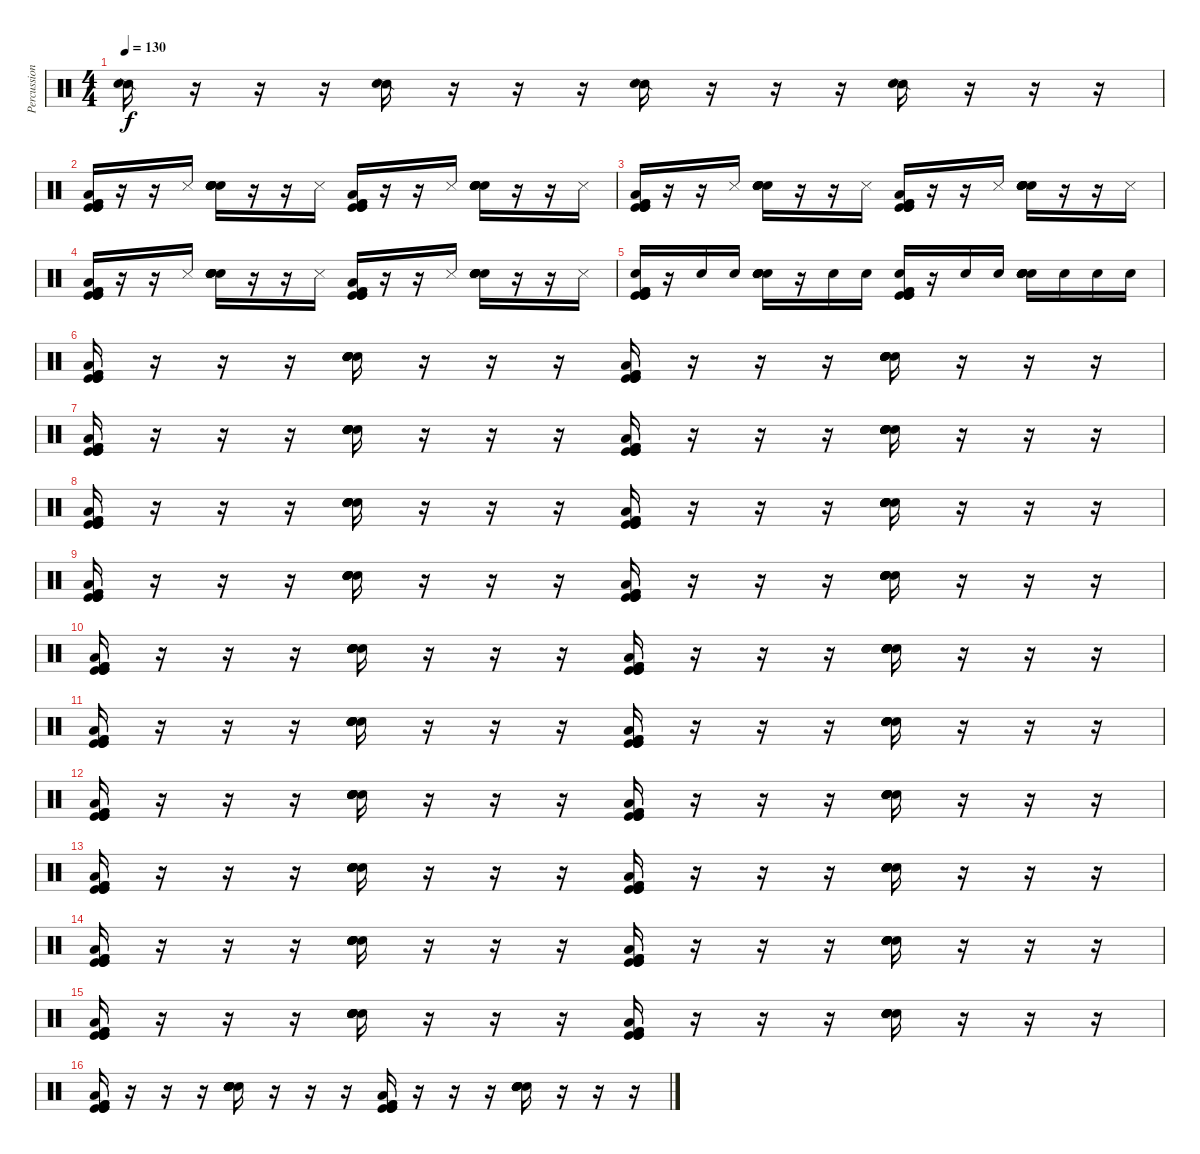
\track ("Percussion" "Percussion") {instrument percussion}
\staff {score}
\articulation defaults
\ts (4 4)
\tempo 130
\clef neutral
\ks c
("Snare (side stick) 2" "Electric Snare (hit)").16{dy f} r.16 r.16 r.16 ("Snare (side stick) 2" "Electric Snare (hit)").16 r.16 r.16 r.16 ("Snare (side stick) 2" "Electric Snare (hit)").16 r.16 r.16 r.16 ("Snare (side stick) 2" "Electric Snare (hit)").16 r.16 r.16 r.16 |
("Kick (hit)" "Kick (hit)" "Kick (hit)" "Kick (hit) 2" "Kick (hit) 2" "Low Floor Tom (hit)").16 r.16 r.16 "Snare (side stick) 3".16 ("Snare (hit) 2" "Snare (hit) 2" "Snare (hit) 2" "Electric Snare (hit)" "Electric Snare (hit)" "Electric Snare (hit)").16 r.16 r.16 "Snare (side stick) 3".16 ("Kick (hit)" "Kick (hit)" "Kick (hit)" "Kick (hit) 2" "Kick (hit) 2" "Low Floor Tom (hit)").16 r.16 r.16 "Snare (side stick) 3".16 ("Snare (hit) 2" "Snare (hit) 2" "Snare (hit) 2" "Electric Snare (hit)" "Electric Snare (hit)" "Electric Snare (hit)").16 r.16 r.16 "Snare (side stick) 3".16 |
("Kick (hit)" "Kick (hit)" "Kick (hit)" "Kick (hit) 2" "Kick (hit) 2" "Low Floor Tom (hit)").16 r.16 r.16 "Snare (side stick) 3".16 ("Snare (hit) 2" "Snare (hit) 2" "Snare (hit) 2" "Electric Snare (hit)" "Electric Snare (hit)" "Electric Snare (hit)").16 r.16 r.16 "Snare (side stick) 3".16 ("Kick (hit)" "Kick (hit)" "Kick (hit)" "Kick (hit) 2" "Kick (hit) 2" "Low Floor Tom (hit)").16 r.16 r.16 "Snare (side stick) 3".16 ("Snare (hit) 2" "Snare (hit) 2" "Snare (hit) 2" "Electric Snare (hit)" "Electric Snare (hit)" "Electric Snare (hit)").16 r.16 r.16 "Snare (side stick) 3".16 |
("Kick (hit)" "Kick (hit)" "Kick (hit)" "Kick (hit) 2" "Kick (hit) 2" "Low Floor Tom (hit)").16 r.16 r.16 "Snare (side stick) 3".16 ("Snare (hit) 2" "Snare (hit) 2" "Snare (hit) 2" "Electric Snare (hit)" "Electric Snare (hit)" "Electric Snare (hit)").16 r.16 r.16 "Snare (side stick) 3".16 ("Kick (hit)" "Kick (hit)" "Kick (hit)" "Kick (hit) 2" "Kick (hit) 2" "Low Floor Tom (hit)").16 r.16 r.16 "Snare (side stick) 3".16 ("Snare (hit) 2" "Snare (hit) 2" "Snare (hit) 2" "Electric Snare (hit)" "Electric Snare (hit)" "Electric Snare (hit)").16 r.16 r.16 "Snare (side stick) 3".16 |
("Kick (hit)" "Kick (hit)" "Kick (hit)" "Kick (hit) 2" "Kick (hit) 2" "Electric Snare (hit)").16 r.16 "Electric Snare (hit)".16 "Electric Snare (hit)".16 ("Snare (hit) 2" "Snare (hit) 2" "Snare (hit) 2" "Electric Snare (hit)" "Electric Snare (hit)" "Electric Snare (hit)").16 r.16 "Electric Snare (hit)".16 "Electric Snare (hit)".16 ("Kick (hit)" "Kick (hit)" "Kick (hit)" "Kick (hit) 2" "Kick (hit) 2" "Electric Snare (hit)").16 r.16 "Electric Snare (hit)".16 "Electric Snare (hit)".16 ("Snare (hit) 2" "Snare (hit) 2" "Snare (hit) 2" "Electric Snare (hit)" "Electric Snare (hit)" "Electric Snare (hit)").16 "Electric Snare (hit)".16 "Electric Snare (hit)".16 "Electric Snare (hit)".16 |
("Kick (hit)" "Kick (hit)" "Kick (hit)" "Kick (hit) 2" "Kick (hit) 2" "Low Floor Tom (hit)").16 r.16 r.16 r.16 ("Snare (hit) 2" "Snare (hit) 2" "Snare (hit) 2" "Electric Snare (hit)" "Electric Snare (hit)" "Electric Snare (hit)").16 r.16 r.16 r.16 ("Kick (hit)" "Kick (hit)" "Kick (hit)" "Kick (hit) 2" "Kick (hit) 2" "Low Floor Tom (hit)").16 r.16 r.16 r.16 ("Snare (hit) 2" "Snare (hit) 2" "Snare (hit) 2" "Electric Snare (hit)" "Electric Snare (hit)" "Electric Snare (hit)").16 r.16 r.16 r.16 |
("Kick (hit)" "Kick (hit)" "Kick (hit)" "Kick (hit) 2" "Kick (hit) 2" "Low Floor Tom (hit)").16 r.16 r.16 r.16 ("Snare (hit) 2" "Snare (hit) 2" "Snare (hit) 2" "Electric Snare (hit)" "Electric Snare (hit)" "Electric Snare (hit)").16 r.16 r.16 r.16 ("Kick (hit)" "Kick (hit)" "Kick (hit)" "Kick (hit) 2" "Kick (hit) 2" "Low Floor Tom (hit)").16 r.16 r.16 r.16 ("Snare (hit) 2" "Snare (hit) 2" "Snare (hit) 2" "Electric Snare (hit)" "Electric Snare (hit)" "Electric Snare (hit)").16 r.16 r.16 r.16 |
("Kick (hit)" "Kick (hit)" "Kick (hit)" "Kick (hit) 2" "Kick (hit) 2" "Low Floor Tom (hit)").16 r.16 r.16 r.16 ("Snare (hit) 2" "Snare (hit) 2" "Snare (hit) 2" "Electric Snare (hit)" "Electric Snare (hit)" "Electric Snare (hit)").16 r.16 r.16 r.16 ("Kick (hit)" "Kick (hit)" "Kick (hit)" "Kick (hit) 2" "Kick (hit) 2" "Low Floor Tom (hit)").16 r.16 r.16 r.16 ("Snare (hit) 2" "Snare (hit) 2" "Snare (hit) 2" "Electric Snare (hit)" "Electric Snare (hit)" "Electric Snare (hit)").16 r.16 r.16 r.16 |
("Kick (hit)" "Kick (hit)" "Kick (hit)" "Kick (hit) 2" "Kick (hit) 2" "Low Floor Tom (hit)").16 r.16 r.16 r.16 ("Snare (hit) 2" "Snare (hit) 2" "Snare (hit) 2" "Electric Snare (hit)" "Electric Snare (hit)" "Electric Snare (hit)").16 r.16 r.16 r.16 ("Kick (hit)" "Kick (hit)" "Kick (hit)" "Kick (hit) 2" "Kick (hit) 2" "Low Floor Tom (hit)").16 r.16 r.16 r.16 ("Snare (hit) 2" "Snare (hit) 2" "Snare (hit) 2" "Electric Snare (hit)" "Electric Snare (hit)" "Electric Snare (hit)").16 r.16 r.16 r.16 |
("Kick (hit)" "Kick (hit)" "Kick (hit)" "Kick (hit) 2" "Kick (hit) 2" "Low Floor Tom (hit)").16 r.16 r.16 r.16 ("Snare (hit) 2" "Snare (hit) 2" "Snare (hit) 2" "Electric Snare (hit)" "Electric Snare (hit)" "Electric Snare (hit)").16 r.16 r.16 r.16 ("Kick (hit)" "Kick (hit)" "Kick (hit)" "Kick (hit) 2" "Kick (hit) 2" "Low Floor Tom (hit)").16 r.16 r.16 r.16 ("Snare (hit) 2" "Snare (hit) 2" "Snare (hit) 2" "Electric Snare (hit)" "Electric Snare (hit)" "Electric Snare (hit)").16 r.16 r.16 r.16 |
("Kick (hit)" "Kick (hit)" "Kick (hit)" "Kick (hit) 2" "Kick (hit) 2" "Low Floor Tom (hit)").16 r.16 r.16 r.16 ("Snare (hit) 2" "Snare (hit) 2" "Snare (hit) 2" "Electric Snare (hit)" "Electric Snare (hit)" "Electric Snare (hit)").16 r.16 r.16 r.16 ("Kick (hit)" "Kick (hit)" "Kick (hit)" "Kick (hit) 2" "Kick (hit) 2" "Low Floor Tom (hit)").16 r.16 r.16 r.16 ("Snare (hit) 2" "Snare (hit) 2" "Snare (hit) 2" "Electric Snare (hit)" "Electric Snare (hit)" "Electric Snare (hit)").16 r.16 r.16 r.16 |
("Kick (hit)" "Kick (hit)" "Kick (hit)" "Kick (hit) 2" "Kick (hit) 2" "Low Floor Tom (hit)").16 r.16 r.16 r.16 ("Snare (hit) 2" "Snare (hit) 2" "Snare (hit) 2" "Electric Snare (hit)" "Electric Snare (hit)" "Electric Snare (hit)").16 r.16 r.16 r.16 ("Kick (hit)" "Kick (hit)" "Kick (hit)" "Kick (hit) 2" "Kick (hit) 2" "Low Floor Tom (hit)").16 r.16 r.16 r.16 ("Snare (hit) 2" "Snare (hit) 2" "Snare (hit) 2" "Electric Snare (hit)" "Electric Snare (hit)" "Electric Snare (hit)").16 r.16 r.16 r.16 |
("Kick (hit)" "Kick (hit)" "Kick (hit)" "Kick (hit) 2" "Kick (hit) 2" "Low Floor Tom (hit)").16 r.16 r.16 r.16 ("Snare (hit) 2" "Snare (hit) 2" "Snare (hit) 2" "Electric Snare (hit)" "Electric Snare (hit)" "Electric Snare (hit)").16 r.16 r.16 r.16 ("Kick (hit)" "Kick (hit)" "Kick (hit)" "Kick (hit) 2" "Kick (hit) 2" "Low Floor Tom (hit)").16 r.16 r.16 r.16 ("Snare (hit) 2" "Snare (hit) 2" "Snare (hit) 2" "Electric Snare (hit)" "Electric Snare (hit)" "Electric Snare (hit)").16 r.16 r.16 r.16 |
("Kick (hit)" "Kick (hit)" "Kick (hit)" "Kick (hit) 2" "Kick (hit) 2" "Low Floor Tom (hit)").16 r.16 r.16 r.16 ("Snare (hit) 2" "Snare (hit) 2" "Snare (hit) 2" "Electric Snare (hit)" "Electric Snare (hit)" "Electric Snare (hit)").16 r.16 r.16 r.16 ("Kick (hit)" "Kick (hit)" "Kick (hit)" "Kick (hit) 2" "Kick (hit) 2" "Low Floor Tom (hit)").16 r.16 r.16 r.16 ("Snare (hit) 2" "Snare (hit) 2" "Snare (hit) 2" "Electric Snare (hit)" "Electric Snare (hit)" "Electric Snare (hit)").16 r.16 r.16 r.16 |
("Kick (hit)" "Kick (hit)" "Kick (hit)" "Kick (hit) 2" "Kick (hit) 2" "Low Floor Tom (hit)").16 r.16 r.16 r.16 ("Snare (hit) 2" "Snare (hit) 2" "Snare (hit) 2" "Electric Snare (hit)" "Electric Snare (hit)" "Electric Snare (hit)").16 r.16 r.16 r.16 ("Kick (hit)" "Kick (hit)" "Kick (hit)" "Kick (hit) 2" "Kick (hit) 2" "Low Floor Tom (hit)").16 r.16 r.16 r.16 ("Snare (hit) 2" "Snare (hit) 2" "Snare (hit) 2" "Electric Snare (hit)" "Electric Snare (hit)" "Electric Snare (hit)").16 r.16 r.16 r.16 |
("Kick (hit)" "Kick (hit)" "Kick (hit)" "Kick (hit) 2" "Kick (hit) 2" "Low Floor Tom (hit)").16 r.16 r.16 r.16 ("Snare (hit) 2" "Snare (hit) 2" "Snare (hit) 2" "Electric Snare (hit)" "Electric Snare (hit)" "Electric Snare (hit)").16 r.16 r.16 r.16 ("Kick (hit)" "Kick (hit)" "Kick (hit)" "Kick (hit) 2" "Kick (hit) 2" "Low Floor Tom (hit)").16 r.16 r.16 r.16 ("Snare (hit) 2" "Snare (hit) 2" "Snare (hit) 2" "Electric Snare (hit)" "Electric Snare (hit)" "Electric Snare (hit)").16 r.16 r.16 r.16
